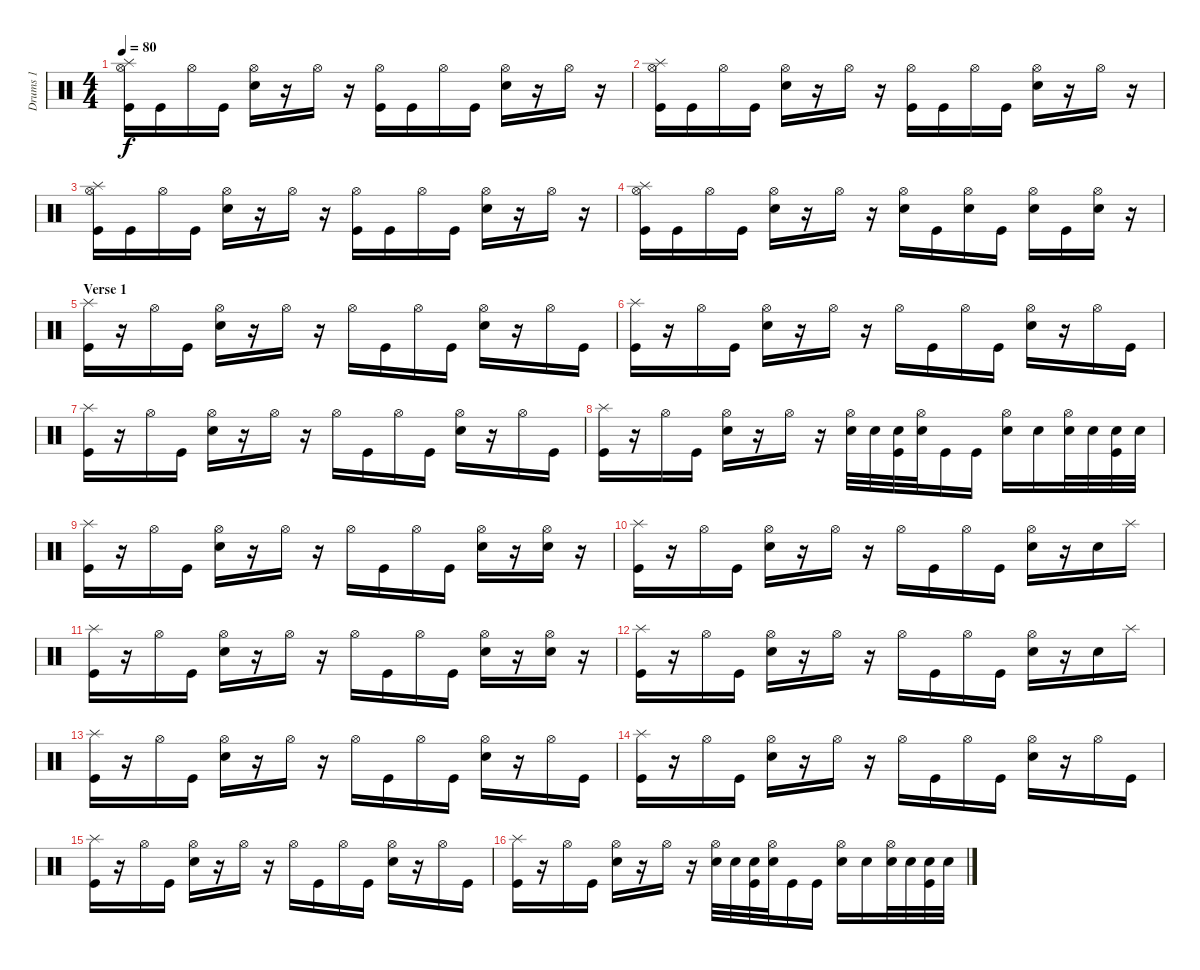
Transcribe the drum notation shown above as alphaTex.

\track ("Drums 1" "Drums 1") {instrument percussion}
\staff {score}
\articulation defaults
\ts (4 4)
\tempo 80
\clef neutral
\ks c
("Splash (hit)" "Hi-Hat (open)" "Kick (hit)").16{dy f} "Kick (hit)".16 "Hi-Hat (open)".16 "Kick (hit)".16 ("Hi-Hat (open)" "Electric Snare (hit)").16 r.16 "Hi-Hat (open)".16 r.16 ("Hi-Hat (open)" "Kick (hit)").16 "Kick (hit)".16 "Hi-Hat (open)".16 "Kick (hit)".16 ("Hi-Hat (open)" "Electric Snare (hit)").16 r.16 "Hi-Hat (open)".16 r.16 |
("Splash (hit)" "Hi-Hat (open)" "Kick (hit)").16 "Kick (hit)".16 "Hi-Hat (open)".16 "Kick (hit)".16 ("Hi-Hat (open)" "Electric Snare (hit)").16 r.16 "Hi-Hat (open)".16 r.16 ("Hi-Hat (open)" "Kick (hit)").16 "Kick (hit)".16 "Hi-Hat (open)".16 "Kick (hit)".16 ("Hi-Hat (open)" "Electric Snare (hit)").16 r.16 "Hi-Hat (open)".16 r.16 |
("Splash (hit)" "Hi-Hat (open)" "Kick (hit)").16 "Kick (hit)".16 "Hi-Hat (open)".16 "Kick (hit)".16 ("Hi-Hat (open)" "Electric Snare (hit)").16 r.16 "Hi-Hat (open)".16 r.16 ("Hi-Hat (open)" "Kick (hit)").16 "Kick (hit)".16 "Hi-Hat (open)".16 "Kick (hit)".16 ("Hi-Hat (open)" "Electric Snare (hit)").16 r.16 "Hi-Hat (open)".16 r.16 |
("Splash (hit)" "Hi-Hat (open)" "Kick (hit)").16 "Kick (hit)".16 "Hi-Hat (open)".16 "Kick (hit)".16 ("Hi-Hat (open)" "Electric Snare (hit)").16 r.16 "Hi-Hat (open)".16 r.16 ("Hi-Hat (open)" "Electric Snare (hit)").16 "Kick (hit)".16 ("Hi-Hat (open)" "Electric Snare (hit)").16 "Kick (hit)".16 ("Hi-Hat (open)" "Electric Snare (hit)").16 "Kick (hit)".16 ("Hi-Hat (open)" "Electric Snare (hit)").16 r.16 |
\section ("" "Verse 1")
("Splash (hit)" "Kick (hit)").16 r.16 "Hi-Hat (open)".16 "Kick (hit)".16 ("Hi-Hat (open)" "Electric Snare (hit)").16 r.16 "Hi-Hat (open)".16 r.16 "Hi-Hat (open)".16 "Kick (hit)".16 "Hi-Hat (open)".16 "Kick (hit)".16 ("Hi-Hat (open)" "Electric Snare (hit)").16 r.16 "Hi-Hat (open)".16 "Kick (hit)".16 |
("Splash (hit)" "Kick (hit)").16 r.16 "Hi-Hat (open)".16 "Kick (hit)".16 ("Hi-Hat (open)" "Electric Snare (hit)").16 r.16 "Hi-Hat (open)".16 r.16 "Hi-Hat (open)".16 "Kick (hit)".16 "Hi-Hat (open)".16 "Kick (hit)".16 ("Hi-Hat (open)" "Electric Snare (hit)").16 r.16 "Hi-Hat (open)".16 "Kick (hit)".16 |
("Splash (hit)" "Kick (hit)").16 r.16 "Hi-Hat (open)".16 "Kick (hit)".16 ("Hi-Hat (open)" "Electric Snare (hit)").16 r.16 "Hi-Hat (open)".16 r.16 "Hi-Hat (open)".16 "Kick (hit)".16 "Hi-Hat (open)".16 "Kick (hit)".16 ("Hi-Hat (open)" "Electric Snare (hit)").16 r.16 "Hi-Hat (open)".16 "Kick (hit)".16 |
("Splash (hit)" "Kick (hit)").16 r.16 "Hi-Hat (open)".16 "Kick (hit)".16 ("Hi-Hat (open)" "Electric Snare (hit)").16 r.16 "Hi-Hat (open)".16 r.16 ("Hi-Hat (open)" "Electric Snare (hit)").32 "Electric Snare (hit)".32 ("Electric Snare (hit)" "Kick (hit)").32 ("Hi-Hat (open)" "Electric Snare (hit)").32 "Kick (hit)".16 "Kick (hit)".16 ("Hi-Hat (open)" "Electric Snare (hit)").16 "Electric Snare (hit)".16 ("Hi-Hat (open)" "Electric Snare (hit)").32 "Electric Snare (hit)".32 ("Electric Snare (hit)" "Kick (hit)").32 "Electric Snare (hit)".32 |
("Splash (hit)" "Kick (hit)").16 r.16 "Hi-Hat (open)".16 "Kick (hit)".16 ("Hi-Hat (open)" "Electric Snare (hit)").16 r.16 "Hi-Hat (open)".16 r.16 "Hi-Hat (open)".16 "Kick (hit)".16 "Hi-Hat (open)".16 "Kick (hit)".16 ("Hi-Hat (open)" "Electric Snare (hit)").16 r.16 ("Hi-Hat (open)" "Electric Snare (hit)").16 r.16 |
("Splash (hit)" "Kick (hit)").16 r.16 "Hi-Hat (open)".16 "Kick (hit)".16 ("Hi-Hat (open)" "Electric Snare (hit)").16 r.16 "Hi-Hat (open)".16 r.16 "Hi-Hat (open)".16 "Kick (hit)".16 "Hi-Hat (open)".16 "Kick (hit)".16 ("Hi-Hat (open)" "Electric Snare (hit)").16 r.16 "Electric Snare (hit)".16 "Splash (hit)".16 |
("Splash (hit)" "Kick (hit)").16 r.16 "Hi-Hat (open)".16 "Kick (hit)".16 ("Hi-Hat (open)" "Electric Snare (hit)").16 r.16 "Hi-Hat (open)".16 r.16 "Hi-Hat (open)".16 "Kick (hit)".16 "Hi-Hat (open)".16 "Kick (hit)".16 ("Hi-Hat (open)" "Electric Snare (hit)").16 r.16 ("Hi-Hat (open)" "Electric Snare (hit)").16 r.16 |
("Splash (hit)" "Kick (hit)").16 r.16 "Hi-Hat (open)".16 "Kick (hit)".16 ("Hi-Hat (open)" "Electric Snare (hit)").16 r.16 "Hi-Hat (open)".16 r.16 "Hi-Hat (open)".16 "Kick (hit)".16 "Hi-Hat (open)".16 "Kick (hit)".16 ("Hi-Hat (open)" "Electric Snare (hit)").16 r.16 "Electric Snare (hit)".16 "Splash (hit)".16 |
("Splash (hit)" "Kick (hit)").16 r.16 "Hi-Hat (open)".16 "Kick (hit)".16 ("Hi-Hat (open)" "Electric Snare (hit)").16 r.16 "Hi-Hat (open)".16 r.16 "Hi-Hat (open)".16 "Kick (hit)".16 "Hi-Hat (open)".16 "Kick (hit)".16 ("Hi-Hat (open)" "Electric Snare (hit)").16 r.16 "Hi-Hat (open)".16 "Kick (hit)".16 |
("Splash (hit)" "Kick (hit)").16 r.16 "Hi-Hat (open)".16 "Kick (hit)".16 ("Hi-Hat (open)" "Electric Snare (hit)").16 r.16 "Hi-Hat (open)".16 r.16 "Hi-Hat (open)".16 "Kick (hit)".16 "Hi-Hat (open)".16 "Kick (hit)".16 ("Hi-Hat (open)" "Electric Snare (hit)").16 r.16 "Hi-Hat (open)".16 "Kick (hit)".16 |
("Splash (hit)" "Kick (hit)").16 r.16 "Hi-Hat (open)".16 "Kick (hit)".16 ("Hi-Hat (open)" "Electric Snare (hit)").16 r.16 "Hi-Hat (open)".16 r.16 "Hi-Hat (open)".16 "Kick (hit)".16 "Hi-Hat (open)".16 "Kick (hit)".16 ("Hi-Hat (open)" "Electric Snare (hit)").16 r.16 "Hi-Hat (open)".16 "Kick (hit)".16 |
("Splash (hit)" "Kick (hit)").16 r.16 "Hi-Hat (open)".16 "Kick (hit)".16 ("Hi-Hat (open)" "Electric Snare (hit)").16 r.16 "Hi-Hat (open)".16 r.16 ("Hi-Hat (open)" "Electric Snare (hit)").32 "Electric Snare (hit)".32 ("Electric Snare (hit)" "Kick (hit)").32 ("Hi-Hat (open)" "Electric Snare (hit)").32 "Kick (hit)".16 "Kick (hit)".16 ("Hi-Hat (open)" "Electric Snare (hit)").16 "Electric Snare (hit)".16 ("Hi-Hat (open)" "Electric Snare (hit)").32 "Electric Snare (hit)".32 ("Electric Snare (hit)" "Kick (hit)").32 "Electric Snare (hit)".32
